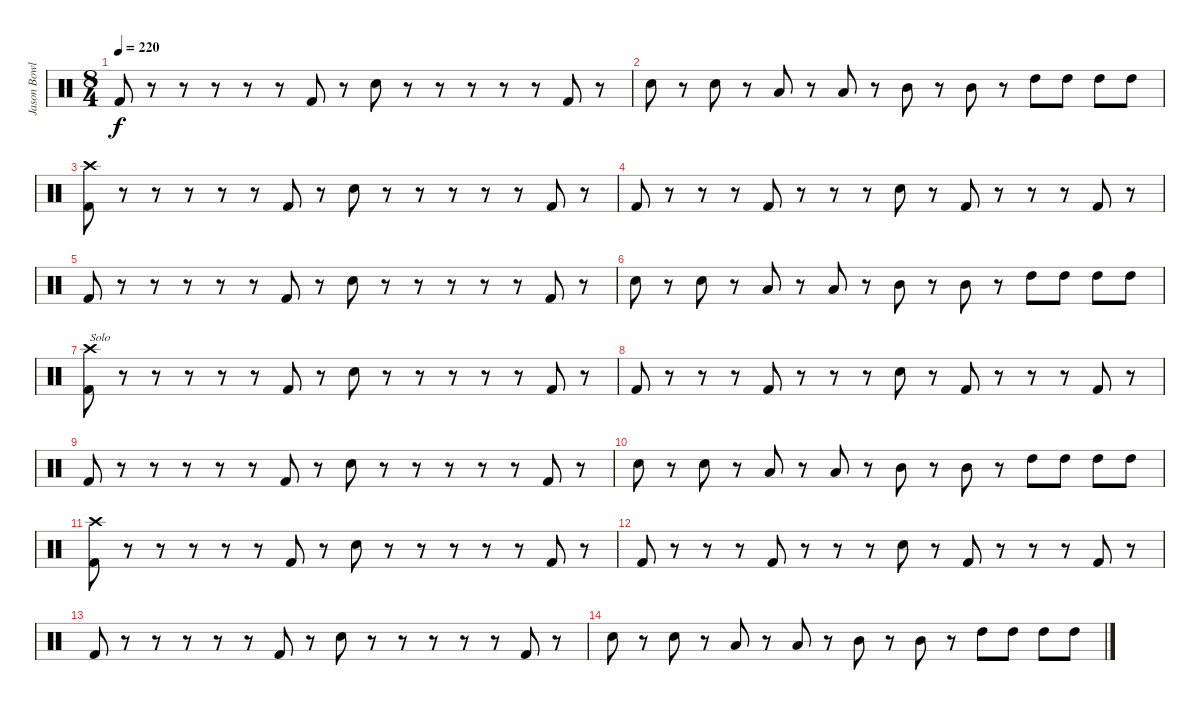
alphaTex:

\track ("Jason Bowld" "Jason Bowl") {instrument percussion}
\staff {score}
\articulation defaults
\ts (8 4)
\tempo 220
\clef neutral
\ks c "Kick (hit) 2".8{dy f}
r.8 r.8 r.8 r.8 r.8 "Kick (hit) 2".8 r.8 "Snare (hit) 2".8 r.8 r.8 r.8 r.8 r.8 "Kick (hit) 2".8 r.8 |
"Snare (hit) 2".8 r.8 "Snare (hit) 2".8 r.8 "Low Tom (hit)".8 r.8 "Low Tom (hit)".8 r.8 "Mid Tom (hit)".8 r.8 "Mid Tom (hit)".8 r.8 "High Tom (hit)".8 "High Tom (hit)".8 "High Tom (hit)".8 "High Tom (hit)".8 |
("Kick (hit) 2" "Crash high (hit)").8 r.8 r.8 r.8 r.8 r.8 "Kick (hit) 2".8 r.8 "Snare (hit) 2".8 r.8 r.8 r.8 r.8 r.8 "Kick (hit) 2".8 r.8 |
"Kick (hit) 2".8 r.8 r.8 r.8 "Kick (hit) 2".8 r.8 r.8 r.8 "Snare (hit) 2".8 r.8 "Kick (hit) 2".8 r.8 r.8 r.8 "Kick (hit) 2".8 r.8 |
"Kick (hit) 2".8 r.8 r.8 r.8 r.8 r.8 "Kick (hit) 2".8 r.8 "Snare (hit) 2".8 r.8 r.8 r.8 r.8 r.8 "Kick (hit) 2".8 r.8 |
"Snare (hit) 2".8 r.8 "Snare (hit) 2".8 r.8 "Low Tom (hit)".8 r.8 "Low Tom (hit)".8 r.8 "Mid Tom (hit)".8 r.8 "Mid Tom (hit)".8 r.8 "High Tom (hit)".8 "High Tom (hit)".8 "High Tom (hit)".8 "High Tom (hit)".8 |
("Kick (hit) 2" "Crash high (hit)").8{txt "Solo"} r.8 r.8 r.8 r.8 r.8 "Kick (hit) 2".8 r.8 "Snare (hit) 2".8 r.8 r.8 r.8 r.8 r.8 "Kick (hit) 2".8 r.8 |
"Kick (hit) 2".8 r.8 r.8 r.8 "Kick (hit) 2".8 r.8 r.8 r.8 "Snare (hit) 2".8 r.8 "Kick (hit) 2".8 r.8 r.8 r.8 "Kick (hit) 2".8 r.8 |
"Kick (hit) 2".8 r.8 r.8 r.8 r.8 r.8 "Kick (hit) 2".8 r.8 "Snare (hit) 2".8 r.8 r.8 r.8 r.8 r.8 "Kick (hit) 2".8 r.8 |
"Snare (hit) 2".8 r.8 "Snare (hit) 2".8 r.8 "Low Tom (hit)".8 r.8 "Low Tom (hit)".8 r.8 "Mid Tom (hit)".8 r.8 "Mid Tom (hit)".8 r.8 "High Tom (hit)".8 "High Tom (hit)".8 "High Tom (hit)".8 "High Tom (hit)".8 |
("Kick (hit) 2" "Crash high (hit)").8 r.8 r.8 r.8 r.8 r.8 "Kick (hit) 2".8 r.8 "Snare (hit) 2".8 r.8 r.8 r.8 r.8 r.8 "Kick (hit) 2".8 r.8 |
"Kick (hit) 2".8 r.8 r.8 r.8 "Kick (hit) 2".8 r.8 r.8 r.8 "Snare (hit) 2".8 r.8 "Kick (hit) 2".8 r.8 r.8 r.8 "Kick (hit) 2".8 r.8 |
"Kick (hit) 2".8 r.8 r.8 r.8 r.8 r.8 "Kick (hit) 2".8 r.8 "Snare (hit) 2".8 r.8 r.8 r.8 r.8 r.8 "Kick (hit) 2".8 r.8 |
"Snare (hit) 2".8 r.8 "Snare (hit) 2".8 r.8 "Low Tom (hit)".8 r.8 "Low Tom (hit)".8 r.8 "Mid Tom (hit)".8 r.8 "Mid Tom (hit)".8 r.8 "High Tom (hit)".8 "High Tom (hit)".8 "High Tom (hit)".8 "High Tom (hit)".8
